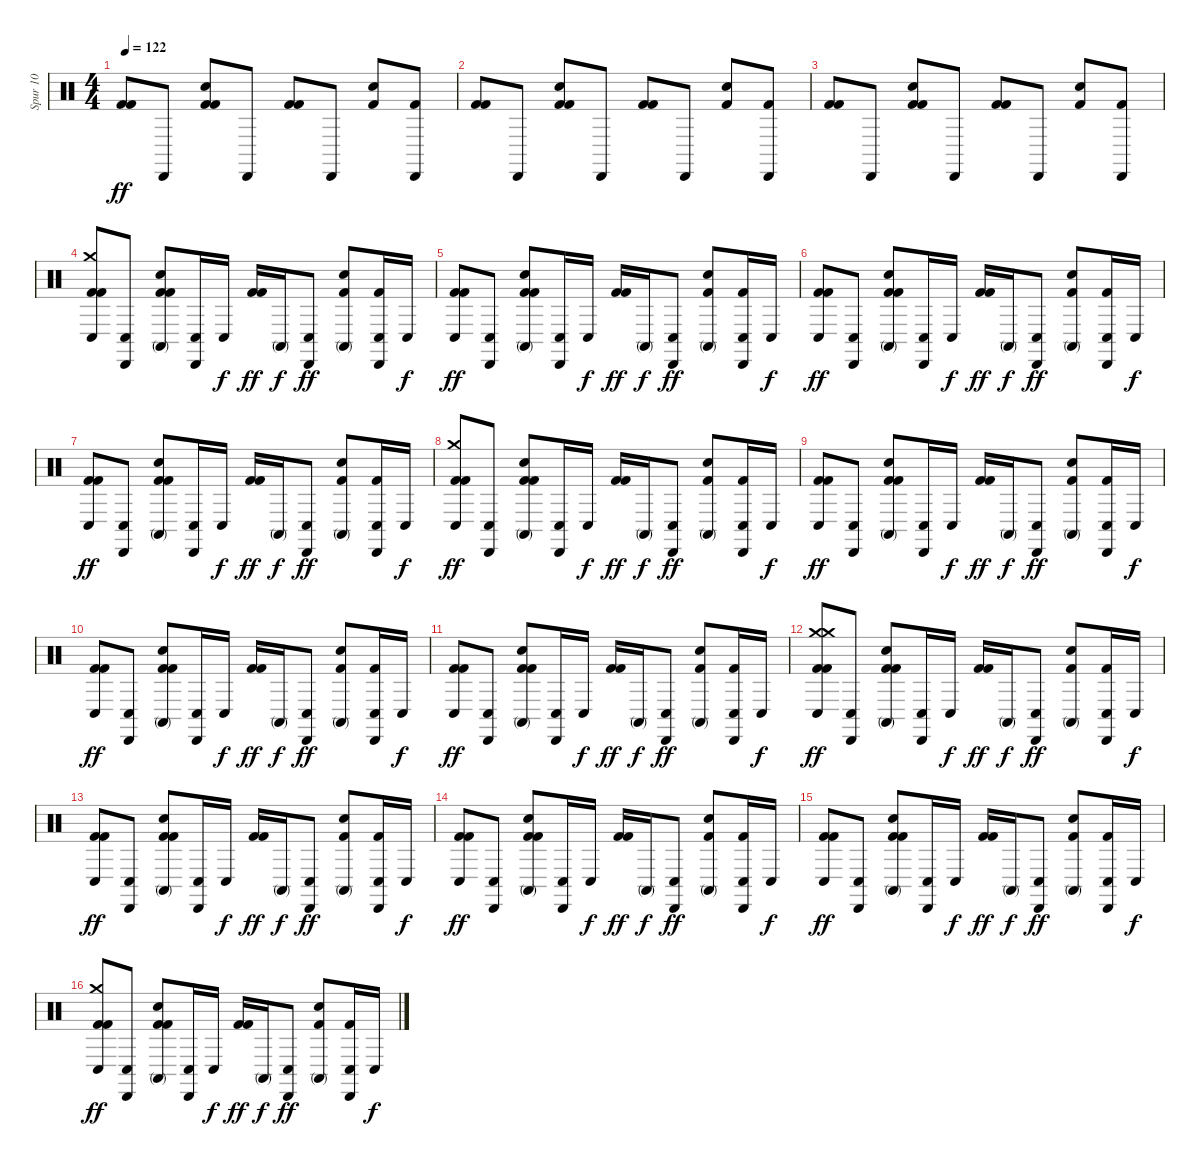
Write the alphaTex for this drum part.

\track ("Spur 10" "Spur 10") {instrument percussion}
\staff {score}
\articulation defaults
\ts (4 4)
\tempo 122
\clef neutral
\ks c
("Kick (hit) 2" "Kick (hit) 2").8{dy ff} "Cabasa (hit)".8 ("Kick (hit) 2" "Kick (hit) 2" "Hand Clap (hit)").8 "Cabasa (hit)".8 ("Kick (hit) 2" "Kick (hit) 2").8 "Cabasa (hit)".8 ("Hand Clap (hit)" "Kick (hit) 2").8 ("Cabasa (hit)" "Kick (hit) 2").8 |
("Kick (hit) 2" "Kick (hit) 2").8 "Cabasa (hit)".8 ("Kick (hit) 2" "Kick (hit) 2" "Hand Clap (hit)").8 "Cabasa (hit)".8 ("Kick (hit) 2" "Kick (hit) 2").8 "Cabasa (hit)".8 ("Hand Clap (hit)" "Kick (hit) 2").8 ("Cabasa (hit)" "Kick (hit) 2").8 |
("Kick (hit) 2" "Kick (hit) 2").8 "Cabasa (hit)".8 ("Kick (hit) 2" "Kick (hit) 2" "Hand Clap (hit)").8 "Cabasa (hit)".8 ("Kick (hit) 2" "Kick (hit) 2").8 "Cabasa (hit)".8 ("Hand Clap (hit)" "Kick (hit) 2").8 ("Cabasa (hit)" "Kick (hit) 2").8 |
("Conga low (hit)" "Kick (hit) 2" "Kick (hit) 2" "Crash medium (hit)").8 ("Conga low (hit)" "Cabasa (hit)").8 ("Conga high (mute)" "Kick (hit) 2" "Kick (hit) 2" "Hand Clap (hit)").8 ("Conga low (hit)" "Cabasa (hit)").16 "Conga low (hit)".16{dy f} ("Kick (hit) 2" "Kick (hit) 2").16{dy ff} "Conga high (mute)".16{dy f} ("Conga low (hit)" "Cabasa (hit)").8{dy ff} ("Hand Clap (hit)" "Conga high (mute)" "Kick (hit) 2").8 ("Conga low (hit)" "Cabasa (hit)" "Kick (hit) 2").16 "Conga low (hit)".16{dy f} |
("Kick (hit) 2" "Kick (hit) 2" "Conga low (hit)").8{dy ff} ("Cabasa (hit)" "Conga low (hit)").8 ("Kick (hit) 2" "Kick (hit) 2" "Conga high (mute)" "Hand Clap (hit)").8 ("Cabasa (hit)" "Conga low (hit)").16 "Conga low (hit)".16{dy f} ("Kick (hit) 2" "Kick (hit) 2").16{dy ff} "Conga high (mute)".16{dy f} ("Cabasa (hit)" "Conga low (hit)").8{dy ff} ("Hand Clap (hit)" "Kick (hit) 2" "Conga high (mute)").8 ("Cabasa (hit)" "Conga low (hit)" "Kick (hit) 2").16 "Conga low (hit)".16{dy f} |
("Conga low (hit)" "Kick (hit) 2" "Kick (hit) 2").8{dy ff} ("Conga low (hit)" "Cabasa (hit)").8 ("Conga high (mute)" "Kick (hit) 2" "Kick (hit) 2" "Hand Clap (hit)").8 ("Conga low (hit)" "Cabasa (hit)").16 "Conga low (hit)".16{dy f} ("Kick (hit) 2" "Kick (hit) 2").16{dy ff} "Conga high (mute)".16{dy f} ("Conga low (hit)" "Cabasa (hit)").8{dy ff} ("Hand Clap (hit)" "Conga high (mute)" "Kick (hit) 2").8 ("Conga low (hit)" "Cabasa (hit)" "Kick (hit) 2").16 "Conga low (hit)".16{dy f} |
("Conga low (hit)" "Kick (hit) 2" "Kick (hit) 2").8{dy ff} ("Conga low (hit)" "Cabasa (hit)").8 ("Conga high (mute)" "Kick (hit) 2" "Kick (hit) 2" "Hand Clap (hit)").8 ("Conga low (hit)" "Cabasa (hit)").16 "Conga low (hit)".16{dy f} ("Kick (hit) 2" "Kick (hit) 2").16{dy ff} "Conga high (mute)".16{dy f} ("Conga low (hit)" "Cabasa (hit)").8{dy ff} ("Hand Clap (hit)" "Conga high (mute)" "Kick (hit) 2").8 ("Conga low (hit)" "Cabasa (hit)" "Kick (hit) 2").16 "Conga low (hit)".16{dy f} |
("Crash medium (hit)" "Conga low (hit)" "Kick (hit) 2" "Kick (hit) 2").8{dy ff} ("Conga low (hit)" "Cabasa (hit)").8 ("Conga high (mute)" "Kick (hit) 2" "Kick (hit) 2" "Hand Clap (hit)").8 ("Conga low (hit)" "Cabasa (hit)").16 "Conga low (hit)".16{dy f} ("Kick (hit) 2" "Kick (hit) 2").16{dy ff} "Conga high (mute)".16{dy f} ("Conga low (hit)" "Cabasa (hit)").8{dy ff} ("Hand Clap (hit)" "Conga high (mute)" "Kick (hit) 2").8 ("Conga low (hit)" "Cabasa (hit)" "Kick (hit) 2").16 "Conga low (hit)".16{dy f} |
("Conga low (hit)" "Kick (hit) 2" "Kick (hit) 2").8{dy ff} ("Conga low (hit)" "Cabasa (hit)").8 ("Conga high (mute)" "Kick (hit) 2" "Kick (hit) 2" "Hand Clap (hit)").8 ("Conga low (hit)" "Cabasa (hit)").16 "Conga low (hit)".16{dy f} ("Kick (hit) 2" "Kick (hit) 2").16{dy ff} "Conga high (mute)".16{dy f} ("Conga low (hit)" "Cabasa (hit)").8{dy ff} ("Hand Clap (hit)" "Conga high (mute)" "Kick (hit) 2").8 ("Conga low (hit)" "Cabasa (hit)" "Kick (hit) 2").16 "Conga low (hit)".16{dy f} |
("Kick (hit) 2" "Kick (hit) 2" "Conga low (hit)").8{dy ff} ("Cabasa (hit)" "Conga low (hit)").8 ("Kick (hit) 2" "Kick (hit) 2" "Hand Clap (hit)" "Conga high (mute)").8 ("Cabasa (hit)" "Conga low (hit)").16 "Conga low (hit)".16{dy f} ("Kick (hit) 2" "Kick (hit) 2").16{dy ff} "Conga high (mute)".16{dy f} ("Cabasa (hit)" "Conga low (hit)").8{dy ff} ("Hand Clap (hit)" "Kick (hit) 2" "Conga high (mute)").8 ("Cabasa (hit)" "Kick (hit) 2" "Conga low (hit)").16 "Conga low (hit)".16{dy f} |
("Kick (hit) 2" "Kick (hit) 2" "Conga low (hit)").8{dy ff} ("Cabasa (hit)" "Conga low (hit)").8 ("Kick (hit) 2" "Kick (hit) 2" "Hand Clap (hit)" "Conga high (mute)").8 ("Cabasa (hit)" "Conga low (hit)").16 "Conga low (hit)".16{dy f} ("Kick (hit) 2" "Kick (hit) 2").16{dy ff} "Conga high (mute)".16{dy f} ("Cabasa (hit)" "Conga low (hit)").8{dy ff} ("Hand Clap (hit)" "Kick (hit) 2" "Conga high (mute)").8 ("Cabasa (hit)" "Kick (hit) 2" "Conga low (hit)").16 "Conga low (hit)".16{dy f} |
("Conga low (hit)" "Kick (hit) 2" "Kick (hit) 2" "Crash medium (hit)" "Crash medium (hit)").8{dy ff} ("Conga low (hit)" "Cabasa (hit)").8 ("Conga high (mute)" "Kick (hit) 2" "Kick (hit) 2" "Hand Clap (hit)").8 ("Conga low (hit)" "Cabasa (hit)").16 "Conga low (hit)".16{dy f} ("Kick (hit) 2" "Kick (hit) 2").16{dy ff} "Conga high (mute)".16{dy f} ("Conga low (hit)" "Cabasa (hit)").8{dy ff} ("Hand Clap (hit)" "Conga high (mute)" "Kick (hit) 2").8 ("Conga low (hit)" "Cabasa (hit)" "Kick (hit) 2").16 "Conga low (hit)".16{dy f} |
("Kick (hit) 2" "Kick (hit) 2" "Conga low (hit)").8{dy ff} ("Cabasa (hit)" "Conga low (hit)").8 ("Kick (hit) 2" "Kick (hit) 2" "Conga high (mute)" "Hand Clap (hit)").8 ("Cabasa (hit)" "Conga low (hit)").16 "Conga low (hit)".16{dy f} ("Kick (hit) 2" "Kick (hit) 2").16{dy ff} "Conga high (mute)".16{dy f} ("Cabasa (hit)" "Conga low (hit)").8{dy ff} ("Hand Clap (hit)" "Kick (hit) 2" "Conga high (mute)").8 ("Cabasa (hit)" "Conga low (hit)" "Kick (hit) 2").16 "Conga low (hit)".16{dy f} |
("Conga low (hit)" "Kick (hit) 2" "Kick (hit) 2").8{dy ff} ("Conga low (hit)" "Cabasa (hit)").8 ("Conga high (mute)" "Kick (hit) 2" "Kick (hit) 2" "Hand Clap (hit)").8 ("Conga low (hit)" "Cabasa (hit)").16 "Conga low (hit)".16{dy f} ("Kick (hit) 2" "Kick (hit) 2").16{dy ff} "Conga high (mute)".16{dy f} ("Conga low (hit)" "Cabasa (hit)").8{dy ff} ("Hand Clap (hit)" "Conga high (mute)" "Kick (hit) 2").8 ("Conga low (hit)" "Cabasa (hit)" "Kick (hit) 2").16 "Conga low (hit)".16{dy f} |
("Conga low (hit)" "Kick (hit) 2" "Kick (hit) 2").8{dy ff} ("Conga low (hit)" "Cabasa (hit)").8 ("Conga high (mute)" "Kick (hit) 2" "Kick (hit) 2" "Hand Clap (hit)").8 ("Conga low (hit)" "Cabasa (hit)").16 "Conga low (hit)".16{dy f} ("Kick (hit) 2" "Kick (hit) 2").16{dy ff} "Conga high (mute)".16{dy f} ("Conga low (hit)" "Cabasa (hit)").8{dy ff} ("Hand Clap (hit)" "Conga high (mute)" "Kick (hit) 2").8 ("Conga low (hit)" "Cabasa (hit)" "Kick (hit) 2").16 "Conga low (hit)".16{dy f} |
("Crash medium (hit)" "Conga low (hit)" "Kick (hit) 2" "Kick (hit) 2").8{dy ff} ("Conga low (hit)" "Cabasa (hit)").8 ("Conga high (mute)" "Kick (hit) 2" "Kick (hit) 2" "Hand Clap (hit)").8 ("Conga low (hit)" "Cabasa (hit)").16 "Conga low (hit)".16{dy f} ("Kick (hit) 2" "Kick (hit) 2").16{dy ff} "Conga high (mute)".16{dy f} ("Conga low (hit)" "Cabasa (hit)").8{dy ff} ("Hand Clap (hit)" "Conga high (mute)" "Kick (hit) 2").8 ("Conga low (hit)" "Cabasa (hit)" "Kick (hit) 2").16 "Conga low (hit)".16{dy f}
